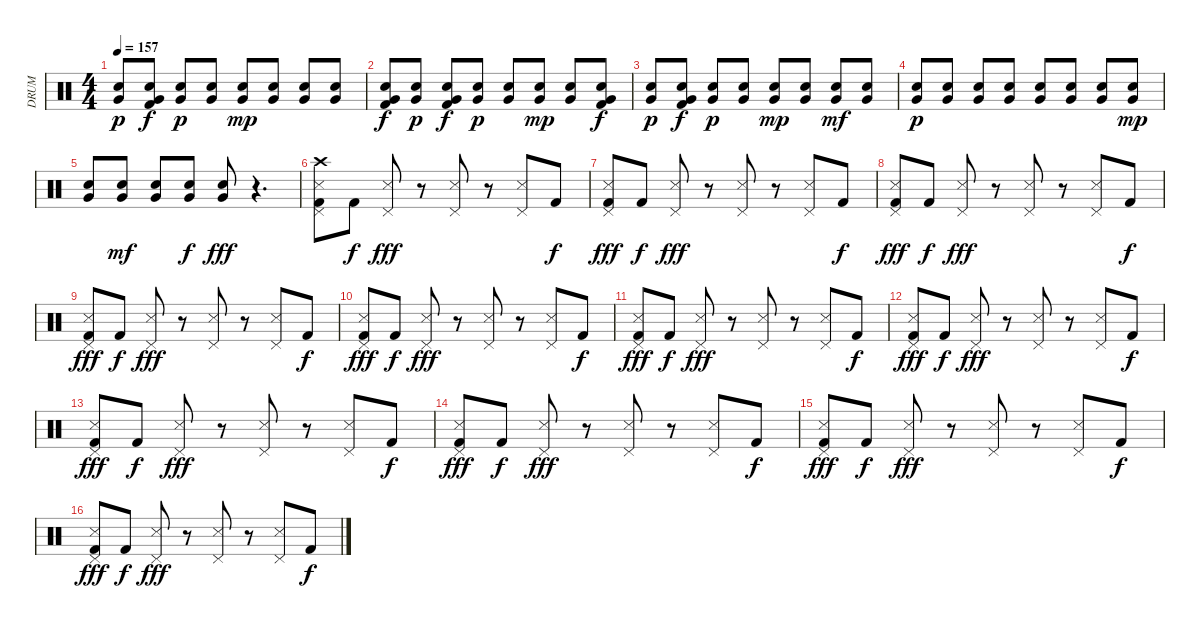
\track ("DRUM" "DRUM") {instrument percussion}
\staff {score}
\articulation defaults
\ts (4 4)
\tempo 157
\clef neutral
\ks c
("Snare (hit) 2" "Very Low Tom (hit)").8{dy p} ("Very Low Tom (hit)" "Kick (hit) 2" "Snare (hit) 2").8{dy f} ("Snare (hit) 2" "Very Low Tom (hit)").8{dy p} ("Very Low Tom (hit)" "Snare (hit) 2").8 ("Snare (hit) 2" "Very Low Tom (hit)").8{dy mp} ("Very Low Tom (hit)" "Snare (hit) 2").8 ("Snare (hit) 2" "Very Low Tom (hit)").8 ("Snare (hit) 2" "Very Low Tom (hit)").8 |
("Snare (hit) 2" "Kick (hit) 2" "Very Low Tom (hit)").8{dy f} ("Snare (hit) 2" "Very Low Tom (hit)").8{dy p} ("Kick (hit) 2" "Snare (hit) 2" "Very Low Tom (hit)").8{dy f} ("Snare (hit) 2" "Very Low Tom (hit)").8{dy p} ("Very Low Tom (hit)" "Snare (hit) 2").8 ("Very Low Tom (hit)" "Snare (hit) 2").8{dy mp} ("Snare (hit) 2" "Very Low Tom (hit)").8 ("Very Low Tom (hit)" "Kick (hit) 2" "Snare (hit) 2").8{dy f} |
("Snare (hit) 2" "Very Low Tom (hit)").8{dy p} ("Very Low Tom (hit)" "Kick (hit) 2" "Snare (hit) 2").8{dy f} ("Snare (hit) 2" "Very Low Tom (hit)").8{dy p} ("Very Low Tom (hit)" "Snare (hit) 2").8 ("Snare (hit) 2" "Very Low Tom (hit)").8{dy mp} ("Very Low Tom (hit)" "Snare (hit) 2").8 ("Snare (hit) 2" "Very Low Tom (hit)").8{dy mf} ("Snare (hit) 2" "Very Low Tom (hit)").8 |
("Snare (hit) 2" "Very Low Tom (hit)").8{dy p} ("Snare (hit) 2" "Very Low Tom (hit)").8 ("Snare (hit) 2" "Very Low Tom (hit)").8 ("Snare (hit) 2" "Very Low Tom (hit)").8 ("Very Low Tom (hit)" "Snare (hit) 2").8 ("Very Low Tom (hit)" "Snare (hit) 2").8 ("Snare (hit) 2" "Very Low Tom (hit)").8 ("Very Low Tom (hit)" "Snare (hit) 2").8{dy mp} |
("Snare (hit) 2" "Very Low Tom (hit)").8 ("Very Low Tom (hit)" "Snare (hit) 2").8{dy mf} ("Snare (hit) 2" "Very Low Tom (hit)").8 ("Very Low Tom (hit)" "Snare (hit) 2").8{dy f} ("Snare (hit) 2" "Very Low Tom (hit)").8{dy fff} r.4{d} |
("Pedal Hi-Hat (hit)" "Snare (side stick) 3" "Kick (hit) 2" "Crash high (hit)").8 "Kick (hit) 2".8{dy f} ("Pedal Hi-Hat (hit)" "Snare (side stick) 3").8{dy fff} r.8 ("Pedal Hi-Hat (hit)" "Snare (side stick) 3").8 r.8 ("Pedal Hi-Hat (hit)" "Snare (side stick) 3").8 "Kick (hit) 2".8{dy f} |
("Pedal Hi-Hat (hit)" "Snare (side stick) 3" "Kick (hit) 2").8{dy fff} "Kick (hit) 2".8{dy f} ("Pedal Hi-Hat (hit)" "Snare (side stick) 3").8{dy fff} r.8 ("Pedal Hi-Hat (hit)" "Snare (side stick) 3").8 r.8 ("Pedal Hi-Hat (hit)" "Snare (side stick) 3").8 "Kick (hit) 2".8{dy f} |
("Pedal Hi-Hat (hit)" "Snare (side stick) 3" "Kick (hit) 2").8{dy fff} "Kick (hit) 2".8{dy f} ("Pedal Hi-Hat (hit)" "Snare (side stick) 3").8{dy fff} r.8 ("Pedal Hi-Hat (hit)" "Snare (side stick) 3").8 r.8 ("Pedal Hi-Hat (hit)" "Snare (side stick) 3").8 "Kick (hit) 2".8{dy f} |
("Pedal Hi-Hat (hit)" "Snare (side stick) 3" "Kick (hit) 2").8{dy fff} "Kick (hit) 2".8{dy f} ("Pedal Hi-Hat (hit)" "Snare (side stick) 3").8{dy fff} r.8 ("Pedal Hi-Hat (hit)" "Snare (side stick) 3").8 r.8 ("Pedal Hi-Hat (hit)" "Snare (side stick) 3").8 "Kick (hit) 2".8{dy f} |
("Pedal Hi-Hat (hit)" "Snare (side stick) 3" "Kick (hit) 2").8{dy fff} "Kick (hit) 2".8{dy f} ("Pedal Hi-Hat (hit)" "Snare (side stick) 3").8{dy fff} r.8 ("Pedal Hi-Hat (hit)" "Snare (side stick) 3").8 r.8 ("Pedal Hi-Hat (hit)" "Snare (side stick) 3").8 "Kick (hit) 2".8{dy f} |
("Pedal Hi-Hat (hit)" "Snare (side stick) 3" "Kick (hit) 2").8{dy fff} "Kick (hit) 2".8{dy f} ("Pedal Hi-Hat (hit)" "Snare (side stick) 3").8{dy fff} r.8 ("Pedal Hi-Hat (hit)" "Snare (side stick) 3").8 r.8 ("Pedal Hi-Hat (hit)" "Snare (side stick) 3").8 "Kick (hit) 2".8{dy f} |
("Pedal Hi-Hat (hit)" "Snare (side stick) 3" "Kick (hit) 2").8{dy fff} "Kick (hit) 2".8{dy f} ("Pedal Hi-Hat (hit)" "Snare (side stick) 3").8{dy fff} r.8 ("Pedal Hi-Hat (hit)" "Snare (side stick) 3").8 r.8 ("Pedal Hi-Hat (hit)" "Snare (side stick) 3").8 "Kick (hit) 2".8{dy f} |
("Pedal Hi-Hat (hit)" "Snare (side stick) 3" "Kick (hit) 2").8{dy fff} "Kick (hit) 2".8{dy f} ("Pedal Hi-Hat (hit)" "Snare (side stick) 3").8{dy fff} r.8 ("Pedal Hi-Hat (hit)" "Snare (side stick) 3").8 r.8 ("Pedal Hi-Hat (hit)" "Snare (side stick) 3").8 "Kick (hit) 2".8{dy f} |
("Pedal Hi-Hat (hit)" "Snare (side stick) 3" "Kick (hit) 2").8{dy fff} "Kick (hit) 2".8{dy f} ("Pedal Hi-Hat (hit)" "Snare (side stick) 3").8{dy fff} r.8 ("Pedal Hi-Hat (hit)" "Snare (side stick) 3").8 r.8 ("Pedal Hi-Hat (hit)" "Snare (side stick) 3").8 "Kick (hit) 2".8{dy f} |
("Pedal Hi-Hat (hit)" "Snare (side stick) 3" "Kick (hit) 2").8{dy fff} "Kick (hit) 2".8{dy f} ("Pedal Hi-Hat (hit)" "Snare (side stick) 3").8{dy fff} r.8 ("Pedal Hi-Hat (hit)" "Snare (side stick) 3").8 r.8 ("Pedal Hi-Hat (hit)" "Snare (side stick) 3").8 "Kick (hit) 2".8{dy f} |
("Pedal Hi-Hat (hit)" "Snare (side stick) 3" "Kick (hit) 2").8{dy fff} "Kick (hit) 2".8{dy f} ("Pedal Hi-Hat (hit)" "Snare (side stick) 3").8{dy fff} r.8 ("Pedal Hi-Hat (hit)" "Snare (side stick) 3").8 r.8 ("Pedal Hi-Hat (hit)" "Snare (side stick) 3").8 "Kick (hit) 2".8{dy f}
